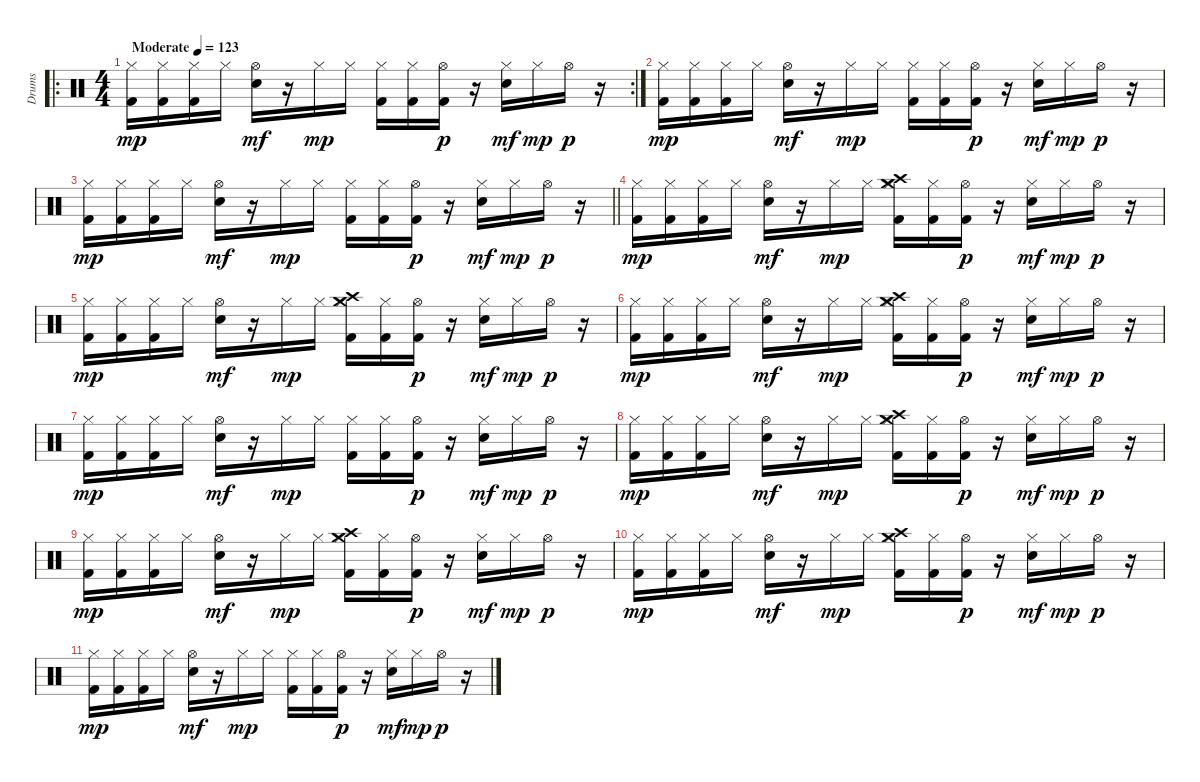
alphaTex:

\track ("Drums" "Drums") {instrument percussion}
\staff {score}
\articulation defaults
\ro
\rc 2
\ts (4 4)
\tempo (123 "Moderate")
\clef neutral
\ks c
("Hi-Hat (closed)" "Kick (hit) 2").16{dy mp} ("Hi-Hat (closed)" "Kick (hit) 2").16 ("Hi-Hat (closed)" "Kick (hit) 2").16 "Hi-Hat (closed)".16 ("Hi-Hat (open)" "Snare (hit) 2").16{dy mf} r.16 "Hi-Hat (closed)".16{dy mp} "Hi-Hat (closed)".16 ("Hi-Hat (closed)" "Kick (hit) 2").16 ("Hi-Hat (closed)" "Kick (hit) 2").16 ("Hi-Hat (open)" "Kick (hit) 2").16{dy p} r.16 ("Hi-Hat (closed)" "Snare (hit) 2").16{dy mf} "Hi-Hat (closed)".16{dy mp} "Hi-Hat (open)".16{dy p} r.16 |
("Hi-Hat (closed)" "Kick (hit) 2").16{dy mp} ("Hi-Hat (closed)" "Kick (hit) 2").16 ("Hi-Hat (closed)" "Kick (hit) 2").16 "Hi-Hat (closed)".16 ("Hi-Hat (open)" "Snare (hit) 2").16{dy mf} r.16 "Hi-Hat (closed)".16{dy mp} "Hi-Hat (closed)".16 ("Hi-Hat (closed)" "Kick (hit) 2").16 ("Hi-Hat (closed)" "Kick (hit) 2").16 ("Hi-Hat (open)" "Kick (hit) 2").16{dy p} r.16 ("Hi-Hat (closed)" "Snare (hit) 2").16{dy mf} "Hi-Hat (closed)".16{dy mp} "Hi-Hat (open)".16{dy p} r.16 |
\barLineRight lightlight
("Hi-Hat (closed)" "Kick (hit) 2").16{dy mp} ("Hi-Hat (closed)" "Kick (hit) 2").16 ("Hi-Hat (closed)" "Kick (hit) 2").16 "Hi-Hat (closed)".16 ("Hi-Hat (open)" "Snare (hit) 2").16{dy mf} r.16 "Hi-Hat (closed)".16{dy mp} "Hi-Hat (closed)".16 ("Hi-Hat (closed)" "Kick (hit) 2").16 ("Hi-Hat (closed)" "Kick (hit) 2").16 ("Hi-Hat (open)" "Kick (hit) 2").16{dy p} r.16 ("Hi-Hat (closed)" "Snare (hit) 2").16{dy mf} "Hi-Hat (closed)".16{dy mp} "Hi-Hat (open)".16{dy p} r.16 |
("Hi-Hat (closed)" "Kick (hit) 2").16{dy mp} ("Hi-Hat (closed)" "Kick (hit) 2").16 ("Hi-Hat (closed)" "Kick (hit) 2").16 "Hi-Hat (closed)".16 ("Hi-Hat (open)" "Snare (hit) 2").16{dy mf} r.16 "Hi-Hat (closed)".16{dy mp} "Hi-Hat (closed)".16 ("Crash medium (hit)" "Crash high (hit)" "Hi-Hat (closed)" "Kick (hit) 2").16 ("Hi-Hat (closed)" "Kick (hit) 2").16 ("Hi-Hat (open)" "Kick (hit) 2").16{dy p} r.16 ("Hi-Hat (closed)" "Snare (hit) 2").16{dy mf} "Hi-Hat (closed)".16{dy mp} "Hi-Hat (open)".16{dy p} r.16 |
("Hi-Hat (closed)" "Kick (hit) 2").16{dy mp} ("Hi-Hat (closed)" "Kick (hit) 2").16 ("Hi-Hat (closed)" "Kick (hit) 2").16 "Hi-Hat (closed)".16 ("Hi-Hat (open)" "Snare (hit) 2").16{dy mf} r.16 "Hi-Hat (closed)".16{dy mp} "Hi-Hat (closed)".16 ("Crash medium (hit)" "Crash high (hit)" "Hi-Hat (closed)" "Kick (hit) 2").16 ("Hi-Hat (closed)" "Kick (hit) 2").16 ("Hi-Hat (open)" "Kick (hit) 2").16{dy p} r.16 ("Hi-Hat (closed)" "Snare (hit) 2").16{dy mf} "Hi-Hat (closed)".16{dy mp} "Hi-Hat (open)".16{dy p} r.16 |
("Hi-Hat (closed)" "Kick (hit) 2").16{dy mp} ("Hi-Hat (closed)" "Kick (hit) 2").16 ("Hi-Hat (closed)" "Kick (hit) 2").16 "Hi-Hat (closed)".16 ("Hi-Hat (open)" "Snare (hit) 2").16{dy mf} r.16 "Hi-Hat (closed)".16{dy mp} "Hi-Hat (closed)".16 ("Crash medium (hit)" "Crash high (hit)" "Hi-Hat (closed)" "Kick (hit) 2").16 ("Hi-Hat (closed)" "Kick (hit) 2").16 ("Hi-Hat (open)" "Kick (hit) 2").16{dy p} r.16 ("Hi-Hat (closed)" "Snare (hit) 2").16{dy mf} "Hi-Hat (closed)".16{dy mp} "Hi-Hat (open)".16{dy p} r.16 |
("Hi-Hat (closed)" "Kick (hit) 2").16{dy mp} ("Hi-Hat (closed)" "Kick (hit) 2").16 ("Hi-Hat (closed)" "Kick (hit) 2").16 "Hi-Hat (closed)".16 ("Hi-Hat (open)" "Snare (hit) 2").16{dy mf} r.16 "Hi-Hat (closed)".16{dy mp} "Hi-Hat (closed)".16 ("Hi-Hat (closed)" "Kick (hit) 2").16 ("Hi-Hat (closed)" "Kick (hit) 2").16 ("Hi-Hat (open)" "Kick (hit) 2").16{dy p} r.16 ("Hi-Hat (closed)" "Snare (hit) 2").16{dy mf} "Hi-Hat (closed)".16{dy mp} "Hi-Hat (open)".16{dy p} r.16 |
("Hi-Hat (closed)" "Kick (hit) 2").16{dy mp} ("Hi-Hat (closed)" "Kick (hit) 2").16 ("Hi-Hat (closed)" "Kick (hit) 2").16 "Hi-Hat (closed)".16 ("Hi-Hat (open)" "Snare (hit) 2").16{dy mf} r.16 "Hi-Hat (closed)".16{dy mp} "Hi-Hat (closed)".16 ("Crash medium (hit)" "Crash high (hit)" "Hi-Hat (closed)" "Kick (hit) 2").16 ("Hi-Hat (closed)" "Kick (hit) 2").16 ("Hi-Hat (open)" "Kick (hit) 2").16{dy p} r.16 ("Hi-Hat (closed)" "Snare (hit) 2").16{dy mf} "Hi-Hat (closed)".16{dy mp} "Hi-Hat (open)".16{dy p} r.16 |
("Hi-Hat (closed)" "Kick (hit) 2").16{dy mp} ("Hi-Hat (closed)" "Kick (hit) 2").16 ("Hi-Hat (closed)" "Kick (hit) 2").16 "Hi-Hat (closed)".16 ("Hi-Hat (open)" "Snare (hit) 2").16{dy mf} r.16 "Hi-Hat (closed)".16{dy mp} "Hi-Hat (closed)".16 ("Crash medium (hit)" "Crash high (hit)" "Hi-Hat (closed)" "Kick (hit) 2").16 ("Hi-Hat (closed)" "Kick (hit) 2").16 ("Hi-Hat (open)" "Kick (hit) 2").16{dy p} r.16 ("Hi-Hat (closed)" "Snare (hit) 2").16{dy mf} "Hi-Hat (closed)".16{dy mp} "Hi-Hat (open)".16{dy p} r.16 |
("Hi-Hat (closed)" "Kick (hit) 2").16{dy mp} ("Hi-Hat (closed)" "Kick (hit) 2").16 ("Hi-Hat (closed)" "Kick (hit) 2").16 "Hi-Hat (closed)".16 ("Hi-Hat (open)" "Snare (hit) 2").16{dy mf} r.16 "Hi-Hat (closed)".16{dy mp} "Hi-Hat (closed)".16 ("Crash medium (hit)" "Crash high (hit)" "Hi-Hat (closed)" "Kick (hit) 2").16 ("Hi-Hat (closed)" "Kick (hit) 2").16 ("Hi-Hat (open)" "Kick (hit) 2").16{dy p} r.16 ("Hi-Hat (closed)" "Snare (hit) 2").16{dy mf} "Hi-Hat (closed)".16{dy mp} "Hi-Hat (open)".16{dy p} r.16 |
("Hi-Hat (closed)" "Kick (hit) 2").16{dy mp} ("Hi-Hat (closed)" "Kick (hit) 2").16 ("Hi-Hat (closed)" "Kick (hit) 2").16 "Hi-Hat (closed)".16 ("Hi-Hat (open)" "Snare (hit) 2").16{dy mf} r.16 "Hi-Hat (closed)".16{dy mp} "Hi-Hat (closed)".16 ("Hi-Hat (closed)" "Kick (hit) 2").16 ("Hi-Hat (closed)" "Kick (hit) 2").16 ("Hi-Hat (open)" "Kick (hit) 2").16{dy p} r.16 ("Hi-Hat (closed)" "Snare (hit) 2").16{dy mf} "Hi-Hat (closed)".16{dy mp} "Hi-Hat (open)".16{dy p} r.16
